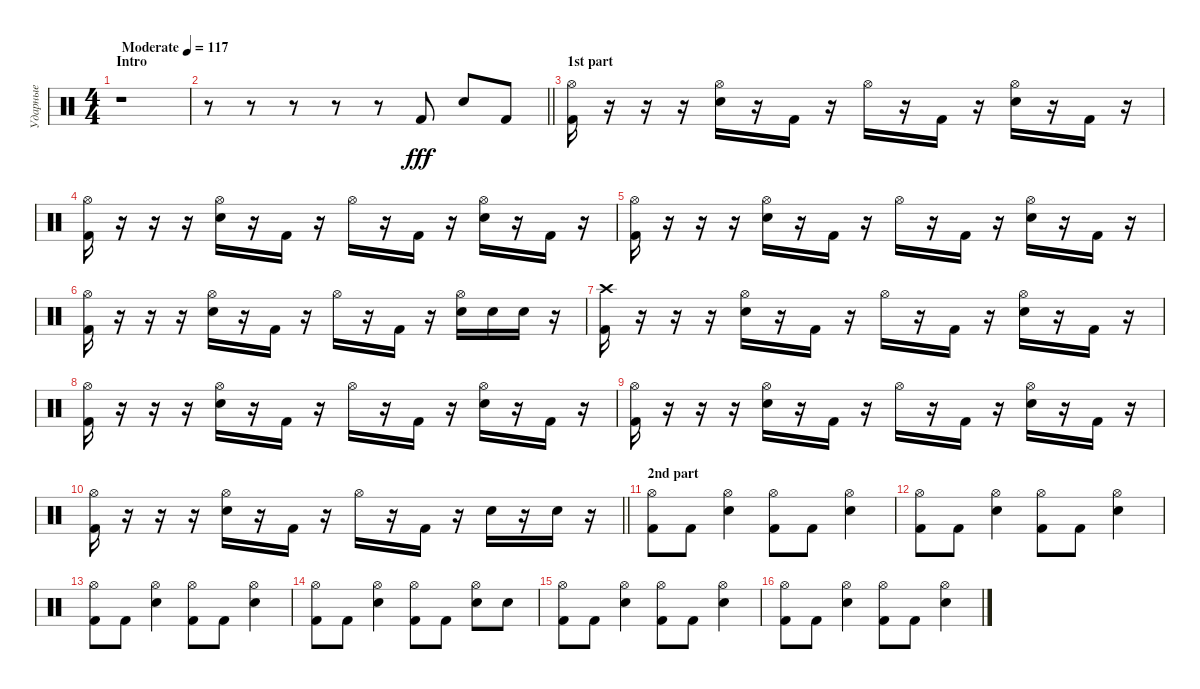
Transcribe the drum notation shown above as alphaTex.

\track ("Ударные" "Ударные") {instrument percussion}
\staff {score}
\articulation defaults
\ts (4 4)
\section ("" "Intro")
\tempo (117 "Moderate")
\clef neutral
\ks c
r.1{dy fff} |
\barLineRight lightlight
r.8 r.8 r.8 r.8 r.8 "Kick (hit) 2".8 "Snare (hit) 2".8 "Kick (hit) 2".8 |
\section ("" "1st part")
("Kick (hit) 2" "Hi-Hat (open)").16 r.16 r.16 r.16 ("Snare (hit) 2" "Hi-Hat (open)").16 r.16 "Kick (hit) 2".16 r.16 "Hi-Hat (open)".16 r.16 "Kick (hit) 2".16 r.16 ("Snare (hit) 2" "Hi-Hat (open)").16 r.16 "Kick (hit) 2".16 r.16 |
("Kick (hit) 2" "Hi-Hat (open)").16 r.16 r.16 r.16 ("Snare (hit) 2" "Hi-Hat (open)").16 r.16 "Kick (hit) 2".16 r.16 "Hi-Hat (open)".16 r.16 "Kick (hit) 2".16 r.16 ("Snare (hit) 2" "Hi-Hat (open)").16 r.16 "Kick (hit) 2".16 r.16 |
("Kick (hit) 2" "Hi-Hat (open)").16 r.16 r.16 r.16 ("Snare (hit) 2" "Hi-Hat (open)").16 r.16 "Kick (hit) 2".16 r.16 "Hi-Hat (open)".16 r.16 "Kick (hit) 2".16 r.16 ("Snare (hit) 2" "Hi-Hat (open)").16 r.16 "Kick (hit) 2".16 r.16 |
("Kick (hit) 2" "Hi-Hat (open)").16 r.16 r.16 r.16 ("Snare (hit) 2" "Hi-Hat (open)").16 r.16 "Kick (hit) 2".16 r.16 "Hi-Hat (open)".16 r.16 "Kick (hit) 2".16 r.16 ("Snare (hit) 2" "Hi-Hat (open)").16 "Snare (hit) 2".16 "Snare (hit) 2".16 r.16 |
("Kick (hit) 2" "Crash high (hit)").16 r.16 r.16 r.16 ("Snare (hit) 2" "Hi-Hat (open)").16 r.16 "Kick (hit) 2".16 r.16 "Hi-Hat (open)".16 r.16 "Kick (hit) 2".16 r.16 ("Snare (hit) 2" "Hi-Hat (open)").16 r.16 "Kick (hit) 2".16 r.16 |
("Kick (hit) 2" "Hi-Hat (open)").16 r.16 r.16 r.16 ("Snare (hit) 2" "Hi-Hat (open)").16 r.16 "Kick (hit) 2".16 r.16 "Hi-Hat (open)".16 r.16 "Kick (hit) 2".16 r.16 ("Snare (hit) 2" "Hi-Hat (open)").16 r.16 "Kick (hit) 2".16 r.16 |
("Kick (hit) 2" "Hi-Hat (open)").16 r.16 r.16 r.16 ("Snare (hit) 2" "Hi-Hat (open)").16 r.16 "Kick (hit) 2".16 r.16 "Hi-Hat (open)".16 r.16 "Kick (hit) 2".16 r.16 ("Snare (hit) 2" "Hi-Hat (open)").16 r.16 "Kick (hit) 2".16 r.16 |
\barLineRight lightlight
("Kick (hit) 2" "Hi-Hat (open)").16 r.16 r.16 r.16 ("Snare (hit) 2" "Hi-Hat (open)").16 r.16 "Kick (hit) 2".16 r.16 "Hi-Hat (open)".16 r.16 "Kick (hit) 2".16 r.16 "Snare (hit) 2".16 r.16 "Snare (hit) 2".16 r.16 |
\section ("" "2nd part")
("Hi-Hat (open)" "Kick (hit) 2").8 "Kick (hit) 2".8 ("Hi-Hat (open)" "Snare (hit) 2").4 ("Hi-Hat (open)" "Kick (hit) 2").8 "Kick (hit) 2".8 ("Hi-Hat (open)" "Snare (hit) 2").4 |
("Hi-Hat (open)" "Kick (hit) 2").8 "Kick (hit) 2".8 ("Hi-Hat (open)" "Snare (hit) 2").4 ("Hi-Hat (open)" "Kick (hit) 2").8 "Kick (hit) 2".8 ("Hi-Hat (open)" "Snare (hit) 2").4 |
("Hi-Hat (open)" "Kick (hit) 2").8 "Kick (hit) 2".8 ("Hi-Hat (open)" "Snare (hit) 2").4 ("Hi-Hat (open)" "Kick (hit) 2").8 "Kick (hit) 2".8 ("Hi-Hat (open)" "Snare (hit) 2").4 |
("Hi-Hat (open)" "Kick (hit) 2").8 "Kick (hit) 2".8 ("Hi-Hat (open)" "Snare (hit) 2").4 ("Hi-Hat (open)" "Kick (hit) 2").8 "Kick (hit) 2".8 ("Hi-Hat (open)" "Snare (hit) 2").8 "Snare (hit) 2".8 |
("Hi-Hat (open)" "Kick (hit) 2").8 "Kick (hit) 2".8 ("Hi-Hat (open)" "Snare (hit) 2").4 ("Hi-Hat (open)" "Kick (hit) 2").8 "Kick (hit) 2".8 ("Hi-Hat (open)" "Snare (hit) 2").4 |
("Hi-Hat (open)" "Kick (hit) 2").8 "Kick (hit) 2".8 ("Hi-Hat (open)" "Snare (hit) 2").4 ("Hi-Hat (open)" "Kick (hit) 2").8 "Kick (hit) 2".8 ("Hi-Hat (open)" "Snare (hit) 2").4
